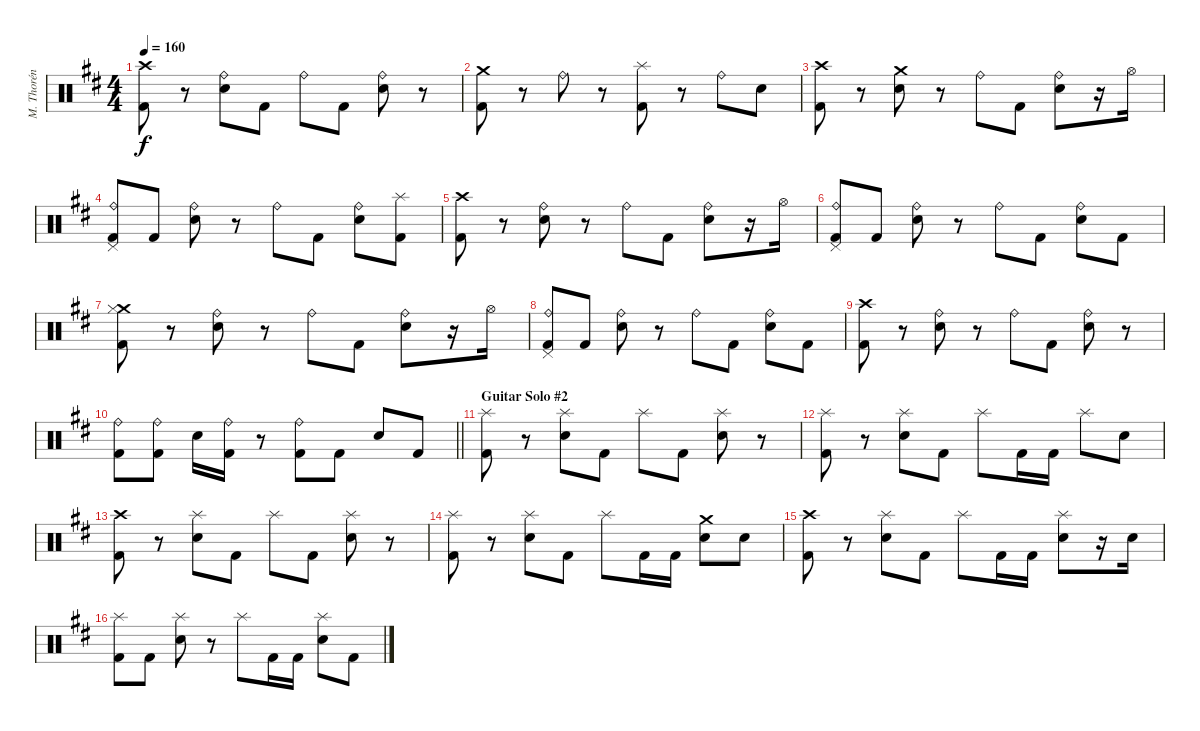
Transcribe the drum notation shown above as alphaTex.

\track ("M. Thorén (Drums)" "M. Thorén ") {instrument percussion}
\staff {score}
\articulation defaults
\ts (4 4)
\tempo 160
\clef neutral
\ks bminor
("Crash high (hit)" "Kick (hit) 2").8{dy f} r.8 ("Ride (bell)" "Electric Snare (hit)").8 "Kick (hit) 2".8 "Ride (bell)".8 "Kick (hit) 2".8 ("Ride (bell)" "Electric Snare (hit)").8 r.8 |
("Crash medium (hit)" "Kick (hit) 2").8 r.8 "Ride (bell)".8 r.8 ("Splash (hit)" "Kick (hit) 2").8 r.8 "Ride (bell)".8 "Electric Snare (hit)".8 |
("Crash high (hit)" "Kick (hit) 2").8 r.8 ("Crash medium (hit)" "Electric Snare (hit)").8 r.8 "Ride (bell)".8 "Kick (hit) 2".8 ("Ride (bell)" "Electric Snare (hit)").8 r.16 "Hi-Hat (open)".16 |
("Ride (bell)" "Pedal Hi-Hat (hit)" "Kick (hit) 2").8 "Kick (hit) 2".8 ("Ride (bell)" "Electric Snare (hit)").8 r.8 "Ride (bell)".8 "Kick (hit) 2".8 ("Ride (bell)" "Electric Snare (hit)").8 ("Splash (hit)" "Kick (hit) 2").8 |
("Crash high (hit)" "Kick (hit) 2").8 r.8 ("Ride (bell)" "Electric Snare (hit)").8 r.8 "Ride (bell)".8 "Kick (hit) 2".8 ("Ride (bell)" "Electric Snare (hit)").8 r.16 "Hi-Hat (open)".16 |
("Ride (bell)" "Pedal Hi-Hat (hit)" "Kick (hit) 2").8 "Kick (hit) 2".8 ("Ride (bell)" "Electric Snare (hit)").8 r.8 "Ride (bell)".8 "Kick (hit) 2".8 ("Ride (bell)" "Electric Snare (hit)").8 "Kick (hit) 2".8 |
("Crash medium (hit)" "Hi-Hat (closed)" "Kick (hit) 2").8 r.8 ("Ride (bell)" "Electric Snare (hit)").8 r.8 "Ride (bell)".8 "Kick (hit) 2".8 ("Ride (bell)" "Electric Snare (hit)").8 r.16 "Hi-Hat (open)".16 |
("Ride (bell)" "Pedal Hi-Hat (hit)" "Kick (hit) 2").8 "Kick (hit) 2".8 ("Ride (bell)" "Electric Snare (hit)").8 r.8 "Ride (bell)".8 "Kick (hit) 2".8 ("Ride (bell)" "Electric Snare (hit)").8 "Kick (hit) 2".8 |
("Crash high (hit)" "Kick (hit) 2").8 r.8 ("Ride (bell)" "Electric Snare (hit)").8 r.8 "Ride (bell)".8 "Kick (hit) 2".8 ("Ride (bell)" "Electric Snare (hit)").8 r.8 |
\barLineRight lightlight
("Ride (bell)" "Kick (hit) 2").8 ("Ride (bell)" "Kick (hit) 2").8 "Electric Snare (hit)".16 ("Ride (bell)" "Kick (hit) 2").16 r.8 ("Ride (bell)" "Kick (hit) 2").8 "Kick (hit) 2".8 "Electric Snare (hit)".8 "Kick (hit) 2".8 |
\section ("" "Guitar Solo #2")
("Splash (hit)" "Kick (hit) 2").8 r.8 ("Splash (hit)" "Electric Snare (hit)").8 "Kick (hit) 2".8 "Splash (hit)".8 "Kick (hit) 2".8 ("Splash (hit)" "Electric Snare (hit)").8 r.8 |
("Splash (hit)" "Kick (hit) 2").8 r.8 ("Splash (hit)" "Electric Snare (hit)").8 "Kick (hit) 2".8 "Splash (hit)".8 "Kick (hit) 2".16 "Kick (hit) 2".16 "Splash (hit)".8 "Electric Snare (hit)".8 |
("Crash high (hit)" "Kick (hit) 2").8 r.8 ("Splash (hit)" "Electric Snare (hit)").8 "Kick (hit) 2".8 "Splash (hit)".8 "Kick (hit) 2".8 ("Splash (hit)" "Electric Snare (hit)").8 r.8 |
("Splash (hit)" "Kick (hit) 2").8 r.8 ("Splash (hit)" "Electric Snare (hit)").8 "Kick (hit) 2".8 "Splash (hit)".8 "Kick (hit) 2".16 "Kick (hit) 2".16 ("Crash medium (hit)" "Electric Snare (hit)").8 "Electric Snare (hit)".8 |
("Crash high (hit)" "Kick (hit) 2").8 r.8 ("Splash (hit)" "Electric Snare (hit)").8 "Kick (hit) 2".8 "Splash (hit)".8 "Kick (hit) 2".16 "Kick (hit) 2".16 ("Splash (hit)" "Electric Snare (hit)").8 r.16 "Electric Snare (hit)".16 |
("Splash (hit)" "Kick (hit) 2").8 "Kick (hit) 2".8 ("Splash (hit)" "Electric Snare (hit)").8 r.8 "Splash (hit)".8 "Kick (hit) 2".16 "Kick (hit) 2".16 ("Splash (hit)" "Electric Snare (hit)").8 "Kick (hit) 2".8
